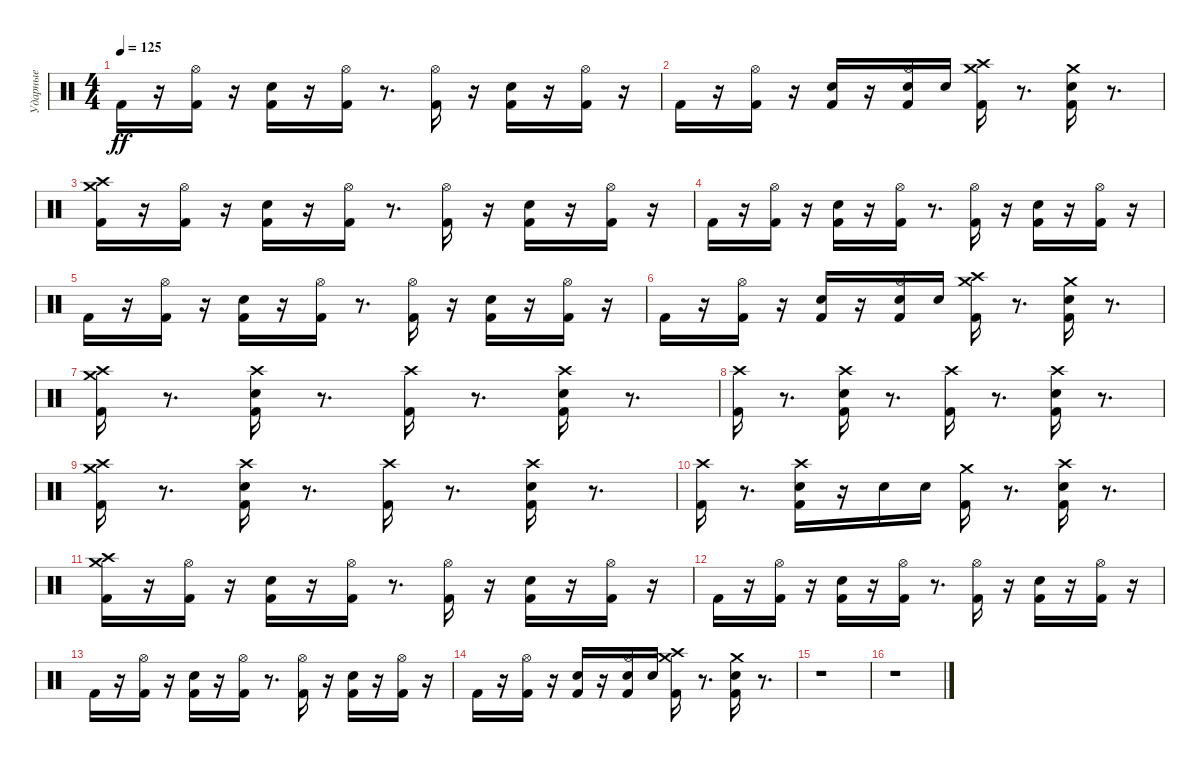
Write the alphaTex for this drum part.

\track ("Ударные" "Ударные") {instrument percussion}
\staff {score}
\articulation defaults
\ts (4 4)
\tempo 125
\clef neutral
\ks c "Kick (hit) 2".16{dy ff}
r.16 ("Hi-Hat (open)" "Kick (hit) 2").16 r.16 ("Snare (hit) 2" "Kick (hit) 2").16 r.16 ("Hi-Hat (open)" "Kick (hit) 2").16 r.8{d} ("Hi-Hat (open)" "Kick (hit) 2").16 r.16 ("Snare (hit) 2" "Kick (hit) 2").16 r.16 ("Hi-Hat (open)" "Kick (hit) 2").16 r.16 |
"Kick (hit) 2".16 r.16 ("Hi-Hat (open)" "Kick (hit) 2").16 r.16 ("Snare (hit) 2" "Kick (hit) 2").16 r.16 ("Kick (hit) 2" "Snare (hit) 2" "Hi-Hat (open)").16 "Snare (hit) 2".16 ("Crash medium (hit)" "Kick (hit) 2" "Crash high (hit)").16 r.8{d} ("Snare (hit) 2" "Crash medium (hit)" "Kick (hit) 2").16 r.8{d} |
("Crash medium (hit)" "Crash high (hit)" "Kick (hit) 2").16 r.16 ("Hi-Hat (open)" "Kick (hit) 2").16 r.16 ("Snare (hit) 2" "Kick (hit) 2").16 r.16 ("Hi-Hat (open)" "Kick (hit) 2").16 r.8{d} ("Hi-Hat (open)" "Kick (hit) 2").16 r.16 ("Snare (hit) 2" "Kick (hit) 2").16 r.16 ("Hi-Hat (open)" "Kick (hit) 2").16 r.16 |
"Kick (hit) 2".16 r.16 ("Hi-Hat (open)" "Kick (hit) 2").16 r.16 ("Snare (hit) 2" "Kick (hit) 2").16 r.16 ("Hi-Hat (open)" "Kick (hit) 2").16 r.8{d} ("Hi-Hat (open)" "Kick (hit) 2").16 r.16 ("Snare (hit) 2" "Kick (hit) 2").16 r.16 ("Hi-Hat (open)" "Kick (hit) 2").16 r.16 |
"Kick (hit) 2".16 r.16 ("Hi-Hat (open)" "Kick (hit) 2").16 r.16 ("Snare (hit) 2" "Kick (hit) 2").16 r.16 ("Hi-Hat (open)" "Kick (hit) 2").16 r.8{d} ("Hi-Hat (open)" "Kick (hit) 2").16 r.16 ("Snare (hit) 2" "Kick (hit) 2").16 r.16 ("Hi-Hat (open)" "Kick (hit) 2").16 r.16 |
"Kick (hit) 2".16 r.16 ("Hi-Hat (open)" "Kick (hit) 2").16 r.16 ("Snare (hit) 2" "Kick (hit) 2").16 r.16 ("Kick (hit) 2" "Snare (hit) 2" "Hi-Hat (open)").16 "Snare (hit) 2".16 ("Crash medium (hit)" "Kick (hit) 2" "Crash high (hit)").16 r.8{d} ("Snare (hit) 2" "Crash medium (hit)" "Kick (hit) 2").16 r.8{d} |
("Crash medium (hit)" "Crash high (hit)" "Kick (hit) 2").16 r.8{d} ("Crash high (hit)" "Snare (hit) 2" "Kick (hit) 2").16 r.8{d} ("Crash high (hit)" "Kick (hit) 2").16 r.8{d} ("Crash high (hit)" "Snare (hit) 2" "Kick (hit) 2").16 r.8{d} |
("Crash high (hit)" "Kick (hit) 2").16 r.8{d} ("Crash high (hit)" "Snare (hit) 2" "Kick (hit) 2").16 r.8{d} ("Crash high (hit)" "Kick (hit) 2").16 r.8{d} ("Crash high (hit)" "Snare (hit) 2" "Kick (hit) 2").16 r.8{d} |
("Crash high (hit)" "Kick (hit) 2" "Crash medium (hit)").16 r.8{d} ("Crash high (hit)" "Snare (hit) 2" "Kick (hit) 2").16 r.8{d} ("Crash high (hit)" "Kick (hit) 2").16 r.8{d} ("Crash high (hit)" "Snare (hit) 2" "Kick (hit) 2").16 r.8{d} |
("Crash high (hit)" "Kick (hit) 2").16 r.8{d} ("Crash high (hit)" "Snare (hit) 2" "Kick (hit) 2").16 r.16 "Snare (hit) 2".16 "Snare (hit) 2".16 ("Crash medium (hit)" "Kick (hit) 2").16 r.8{d} ("Crash high (hit)" "Snare (hit) 2" "Kick (hit) 2").16 r.8{d} |
("Crash medium (hit)" "Crash high (hit)" "Kick (hit) 2").16 r.16 ("Hi-Hat (open)" "Kick (hit) 2").16 r.16 ("Snare (hit) 2" "Kick (hit) 2").16 r.16 ("Hi-Hat (open)" "Kick (hit) 2").16 r.8{d} ("Hi-Hat (open)" "Kick (hit) 2").16 r.16 ("Snare (hit) 2" "Kick (hit) 2").16 r.16 ("Hi-Hat (open)" "Kick (hit) 2").16 r.16 |
"Kick (hit) 2".16 r.16 ("Hi-Hat (open)" "Kick (hit) 2").16 r.16 ("Snare (hit) 2" "Kick (hit) 2").16 r.16 ("Hi-Hat (open)" "Kick (hit) 2").16 r.8{d} ("Hi-Hat (open)" "Kick (hit) 2").16 r.16 ("Snare (hit) 2" "Kick (hit) 2").16 r.16 ("Hi-Hat (open)" "Kick (hit) 2").16 r.16 |
"Kick (hit) 2".16 r.16 ("Hi-Hat (open)" "Kick (hit) 2").16 r.16 ("Snare (hit) 2" "Kick (hit) 2").16 r.16 ("Hi-Hat (open)" "Kick (hit) 2").16 r.8{d} ("Hi-Hat (open)" "Kick (hit) 2").16 r.16 ("Snare (hit) 2" "Kick (hit) 2").16 r.16 ("Hi-Hat (open)" "Kick (hit) 2").16 r.16 |
"Kick (hit) 2".16 r.16 ("Hi-Hat (open)" "Kick (hit) 2").16 r.16 ("Snare (hit) 2" "Kick (hit) 2").16 r.16 ("Kick (hit) 2" "Snare (hit) 2" "Hi-Hat (open)").16 "Snare (hit) 2".16 ("Crash medium (hit)" "Kick (hit) 2" "Crash high (hit)").16 r.8{d} ("Snare (hit) 2" "Crash medium (hit)" "Kick (hit) 2").16 r.8{d} |
r.1 |
r.1
